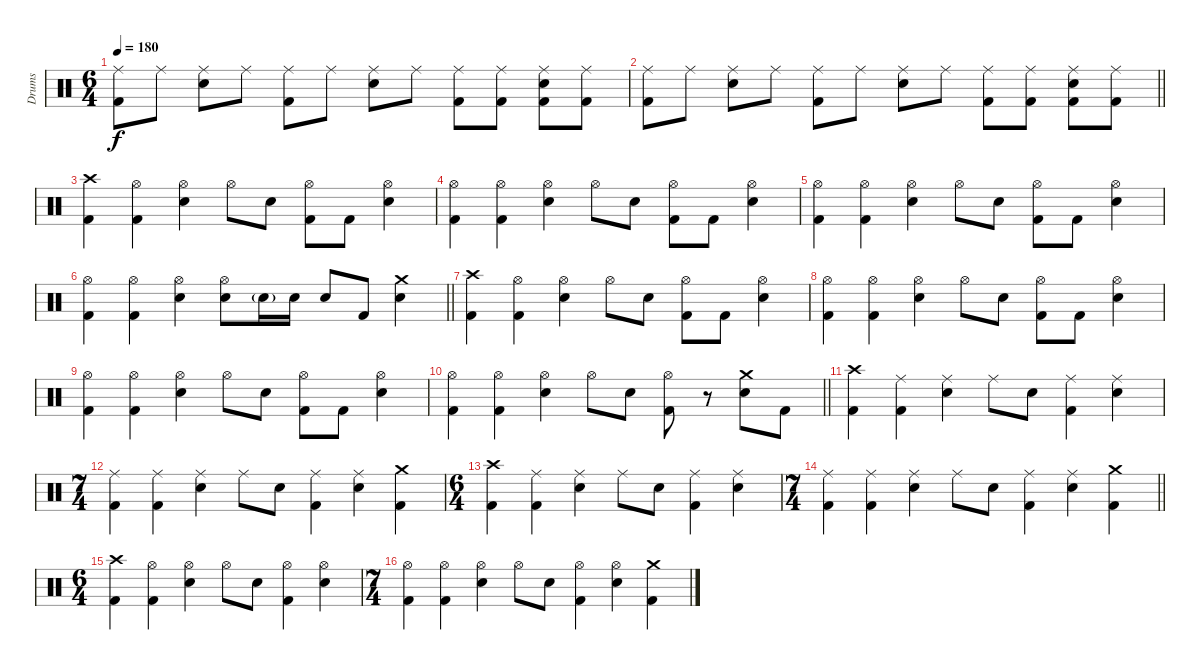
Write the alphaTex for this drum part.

\track ("Drums" "Drums") {instrument percussion}
\staff {score}
\articulation defaults
\ts (6 4)
\tempo 180
\clef neutral
\ks c
("Ride (middle)" "Kick (hit) 2").8{dy f} "Ride (middle)".8 ("Ride (middle)" "Electric Snare (hit)").8 "Ride (middle)".8 ("Ride (middle)" "Kick (hit) 2").8 "Ride (middle)".8 ("Ride (middle)" "Electric Snare (hit)").8 "Ride (middle)".8 ("Ride (middle)" "Kick (hit) 2").8 ("Ride (middle)" "Kick (hit) 2").8 ("Ride (middle)" "Electric Snare (hit)" "Kick (hit) 2").8 ("Ride (middle)" "Kick (hit) 2").8 |
\barLineRight lightlight
("Ride (middle)" "Kick (hit) 2").8 "Ride (middle)".8 ("Ride (middle)" "Electric Snare (hit)").8 "Ride (middle)".8 ("Ride (middle)" "Kick (hit) 2").8 "Ride (middle)".8 ("Ride (middle)" "Electric Snare (hit)").8 "Ride (middle)".8 ("Ride (middle)" "Kick (hit) 2").8 ("Ride (middle)" "Kick (hit) 2").8 ("Ride (middle)" "Electric Snare (hit)" "Kick (hit) 2").8 ("Ride (middle)" "Kick (hit) 2").8 |
("Crash high (hit)" "Kick (hit) 2").4 ("Hi-Hat (open)" "Kick (hit) 2").4 ("Hi-Hat (open)" "Electric Snare (hit)").4 "Hi-Hat (open)".8 "Electric Snare (hit)".8 ("Hi-Hat (open)" "Kick (hit) 2").8 "Kick (hit) 2".8 ("Hi-Hat (open)" "Electric Snare (hit)").4 |
("Hi-Hat (open)" "Kick (hit) 2").4 ("Hi-Hat (open)" "Kick (hit) 2").4 ("Hi-Hat (open)" "Electric Snare (hit)").4 "Hi-Hat (open)".8 "Electric Snare (hit)".8 ("Hi-Hat (open)" "Kick (hit) 2").8 "Kick (hit) 2".8 ("Hi-Hat (open)" "Electric Snare (hit)").4 |
("Hi-Hat (open)" "Kick (hit) 2").4 ("Hi-Hat (open)" "Kick (hit) 2").4 ("Hi-Hat (open)" "Electric Snare (hit)").4 "Hi-Hat (open)".8 "Electric Snare (hit)".8 ("Hi-Hat (open)" "Kick (hit) 2").8 "Kick (hit) 2".8 ("Hi-Hat (open)" "Electric Snare (hit)").4 |
\barLineRight lightlight
("Hi-Hat (open)" "Kick (hit) 2").4 ("Hi-Hat (open)" "Kick (hit) 2").4 ("Hi-Hat (open)" "Electric Snare (hit)").4 ("Hi-Hat (open)" "Electric Snare (hit)").8 "Electric Snare (hit)"{g}.16 "Electric Snare (hit)".16 "Electric Snare (hit)".8 "Kick (hit) 2".8 ("Crash medium (hit)" "Electric Snare (hit)").4 |
("Crash high (hit)" "Kick (hit) 2").4 ("Hi-Hat (open)" "Kick (hit) 2").4 ("Hi-Hat (open)" "Electric Snare (hit)").4 "Hi-Hat (open)".8 "Electric Snare (hit)".8 ("Hi-Hat (open)" "Kick (hit) 2").8 "Kick (hit) 2".8 ("Hi-Hat (open)" "Electric Snare (hit)").4 |
("Hi-Hat (open)" "Kick (hit) 2").4 ("Hi-Hat (open)" "Kick (hit) 2").4 ("Hi-Hat (open)" "Electric Snare (hit)").4 "Hi-Hat (open)".8 "Electric Snare (hit)".8 ("Hi-Hat (open)" "Kick (hit) 2").8 "Kick (hit) 2".8 ("Hi-Hat (open)" "Electric Snare (hit)").4 |
("Hi-Hat (open)" "Kick (hit) 2").4 ("Hi-Hat (open)" "Kick (hit) 2").4 ("Hi-Hat (open)" "Electric Snare (hit)").4 "Hi-Hat (open)".8 "Electric Snare (hit)".8 ("Hi-Hat (open)" "Kick (hit) 2").8 "Kick (hit) 2".8 ("Hi-Hat (open)" "Electric Snare (hit)").4 |
\barLineRight lightlight
("Hi-Hat (open)" "Kick (hit) 2").4 ("Hi-Hat (open)" "Kick (hit) 2").4 ("Hi-Hat (open)" "Electric Snare (hit)").4 "Hi-Hat (open)".8 "Electric Snare (hit)".8 ("Hi-Hat (open)" "Kick (hit) 2").8 r.8 ("Crash medium (hit)" "Electric Snare (hit)").8 "Kick (hit) 2".8 |
("Crash high (hit)" "Kick (hit) 2").4 ("Ride (middle)" "Kick (hit) 2").4 ("Ride (middle)" "Electric Snare (hit)").4 "Ride (middle)".8 "Electric Snare (hit)".8 ("Ride (middle)" "Kick (hit) 2").4 ("Ride (middle)" "Electric Snare (hit)").4 |
\ts (7 4)
("Ride (middle)" "Kick (hit) 2").4 ("Ride (middle)" "Kick (hit) 2").4 ("Ride (middle)" "Electric Snare (hit)").4 "Ride (middle)".8 "Electric Snare (hit)".8 ("Ride (middle)" "Kick (hit) 2").4 ("Ride (middle)" "Electric Snare (hit)").4 ("Crash medium (hit)" "Kick (hit) 2").4 |
\ts (6 4)
("Crash high (hit)" "Kick (hit) 2").4 ("Ride (middle)" "Kick (hit) 2").4 ("Ride (middle)" "Electric Snare (hit)").4 "Ride (middle)".8 "Electric Snare (hit)".8 ("Ride (middle)" "Kick (hit) 2").4 ("Ride (middle)" "Electric Snare (hit)").4 |
\ts (7 4)
\barLineRight lightlight
("Ride (middle)" "Kick (hit) 2").4 ("Ride (middle)" "Kick (hit) 2").4 ("Ride (middle)" "Electric Snare (hit)").4 "Ride (middle)".8 "Electric Snare (hit)".8 ("Ride (middle)" "Kick (hit) 2").4 ("Ride (middle)" "Electric Snare (hit)").4 ("Crash medium (hit)" "Kick (hit) 2").4 |
\ts (6 4)
("Crash high (hit)" "Kick (hit) 2").4 ("Hi-Hat (open)" "Kick (hit) 2").4 ("Hi-Hat (open)" "Electric Snare (hit)").4 "Hi-Hat (open)".8 "Electric Snare (hit)".8 ("Hi-Hat (open)" "Kick (hit) 2").4 ("Hi-Hat (open)" "Electric Snare (hit)").4 |
\ts (7 4)
("Hi-Hat (open)" "Kick (hit) 2").4 ("Hi-Hat (open)" "Kick (hit) 2").4 ("Hi-Hat (open)" "Electric Snare (hit)").4 "Hi-Hat (open)".8 "Electric Snare (hit)".8 ("Hi-Hat (open)" "Kick (hit) 2").4 ("Hi-Hat (open)" "Electric Snare (hit)").4 ("Crash medium (hit)" "Kick (hit) 2").4
